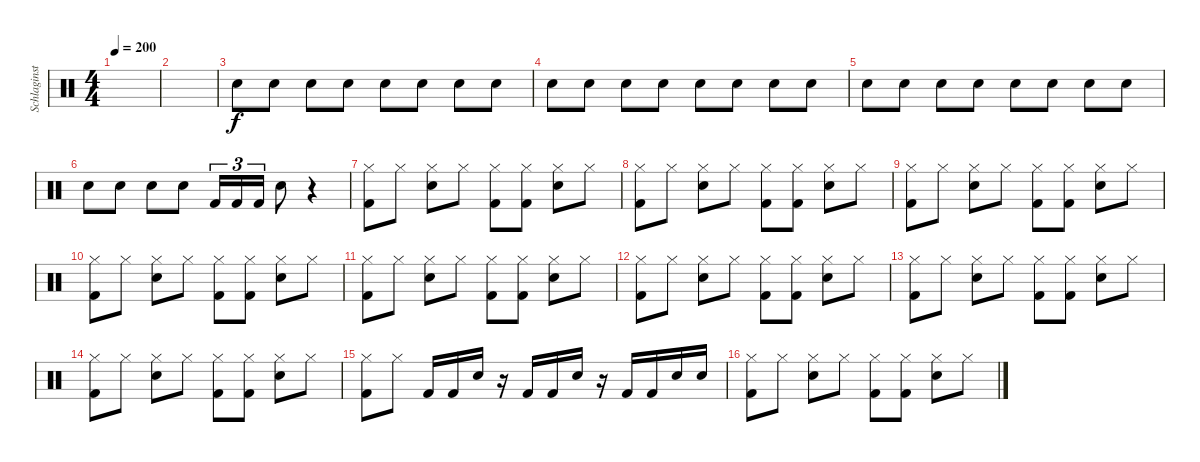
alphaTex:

\track ("Schlaginstrumente - Auswahl" "Schlaginst") {instrument percussion}
\staff {score}
\articulation defaults
\ts (4 4)
\tempo 200
\clef neutral
\ks c
|
|
"Electric Snare (hit)".8 "Electric Snare (hit)".8 "Electric Snare (hit)".8 "Electric Snare (hit)".8 "Electric Snare (hit)".8 "Electric Snare (hit)".8 "Electric Snare (hit)".8 "Electric Snare (hit)".8 |
"Electric Snare (hit)".8 "Electric Snare (hit)".8 "Electric Snare (hit)".8 "Electric Snare (hit)".8 "Electric Snare (hit)".8 "Electric Snare (hit)".8 "Electric Snare (hit)".8 "Electric Snare (hit)".8 |
"Electric Snare (hit)".8 "Electric Snare (hit)".8 "Electric Snare (hit)".8 "Electric Snare (hit)".8 "Electric Snare (hit)".8 "Electric Snare (hit)".8 "Electric Snare (hit)".8 "Electric Snare (hit)".8 |
"Electric Snare (hit)".8 "Electric Snare (hit)".8 "Electric Snare (hit)".8 "Electric Snare (hit)".8 "Kick (hit) 2".16{tu (3 2)} "Kick (hit) 2".16{tu (3 2)} "Kick (hit) 2".16{tu (3 2)} "Electric Snare (hit)".8 r.4 |
("Hi-Hat (closed)" "Kick (hit) 2").8 "Hi-Hat (closed)".8 ("Hi-Hat (closed)" "Electric Snare (hit)").8 "Hi-Hat (closed)".8 ("Hi-Hat (closed)" "Kick (hit) 2").8 ("Hi-Hat (closed)" "Kick (hit) 2").8 ("Hi-Hat (closed)" "Electric Snare (hit)").8 "Hi-Hat (closed)".8 |
("Hi-Hat (closed)" "Kick (hit) 2").8 "Hi-Hat (closed)".8 ("Hi-Hat (closed)" "Electric Snare (hit)").8 "Hi-Hat (closed)".8 ("Hi-Hat (closed)" "Kick (hit) 2").8 ("Hi-Hat (closed)" "Kick (hit) 2").8 ("Hi-Hat (closed)" "Electric Snare (hit)").8 "Hi-Hat (closed)".8 |
("Hi-Hat (closed)" "Kick (hit) 2").8 "Hi-Hat (closed)".8 ("Hi-Hat (closed)" "Electric Snare (hit)").8 "Hi-Hat (closed)".8 ("Hi-Hat (closed)" "Kick (hit) 2").8 ("Hi-Hat (closed)" "Kick (hit) 2").8 ("Hi-Hat (closed)" "Electric Snare (hit)").8 "Hi-Hat (closed)".8 |
("Hi-Hat (closed)" "Kick (hit) 2").8 "Hi-Hat (closed)".8 ("Hi-Hat (closed)" "Electric Snare (hit)").8 "Hi-Hat (closed)".8 ("Hi-Hat (closed)" "Kick (hit) 2").8 ("Hi-Hat (closed)" "Kick (hit) 2").8 ("Hi-Hat (closed)" "Electric Snare (hit)").8 "Hi-Hat (closed)".8 |
("Hi-Hat (closed)" "Kick (hit) 2").8 "Hi-Hat (closed)".8 ("Hi-Hat (closed)" "Electric Snare (hit)").8 "Hi-Hat (closed)".8 ("Hi-Hat (closed)" "Kick (hit) 2").8 ("Hi-Hat (closed)" "Kick (hit) 2").8 ("Hi-Hat (closed)" "Electric Snare (hit)").8 "Hi-Hat (closed)".8 |
("Hi-Hat (closed)" "Kick (hit) 2").8 "Hi-Hat (closed)".8 ("Hi-Hat (closed)" "Electric Snare (hit)").8 "Hi-Hat (closed)".8 ("Hi-Hat (closed)" "Kick (hit) 2").8 ("Hi-Hat (closed)" "Kick (hit) 2").8 ("Hi-Hat (closed)" "Electric Snare (hit)").8 "Hi-Hat (closed)".8 |
("Hi-Hat (closed)" "Kick (hit) 2").8 "Hi-Hat (closed)".8 ("Hi-Hat (closed)" "Electric Snare (hit)").8 "Hi-Hat (closed)".8 ("Hi-Hat (closed)" "Kick (hit) 2").8 ("Hi-Hat (closed)" "Kick (hit) 2").8 ("Hi-Hat (closed)" "Electric Snare (hit)").8 "Hi-Hat (closed)".8 |
("Hi-Hat (closed)" "Kick (hit) 2").8 "Hi-Hat (closed)".8 ("Hi-Hat (closed)" "Electric Snare (hit)").8 "Hi-Hat (closed)".8 ("Hi-Hat (closed)" "Kick (hit) 2").8 ("Hi-Hat (closed)" "Kick (hit) 2").8 ("Hi-Hat (closed)" "Electric Snare (hit)").8 "Hi-Hat (closed)".8 |
("Hi-Hat (closed)" "Kick (hit) 2").8 "Hi-Hat (closed)".8 "Kick (hit) 2".16 "Kick (hit) 2".16 "Electric Snare (hit)".16 r.16 "Kick (hit) 2".16 "Kick (hit) 2".16 "Electric Snare (hit)".16 r.16 "Kick (hit) 2".16 "Kick (hit) 2".16 "Electric Snare (hit)".16 "Electric Snare (hit)".16 |
("Hi-Hat (closed)" "Kick (hit) 2").8 "Hi-Hat (closed)".8 ("Hi-Hat (closed)" "Electric Snare (hit)").8 "Hi-Hat (closed)".8 ("Hi-Hat (closed)" "Kick (hit) 2").8 ("Hi-Hat (closed)" "Kick (hit) 2").8 ("Hi-Hat (closed)" "Electric Snare (hit)").8 "Hi-Hat (closed)".8
